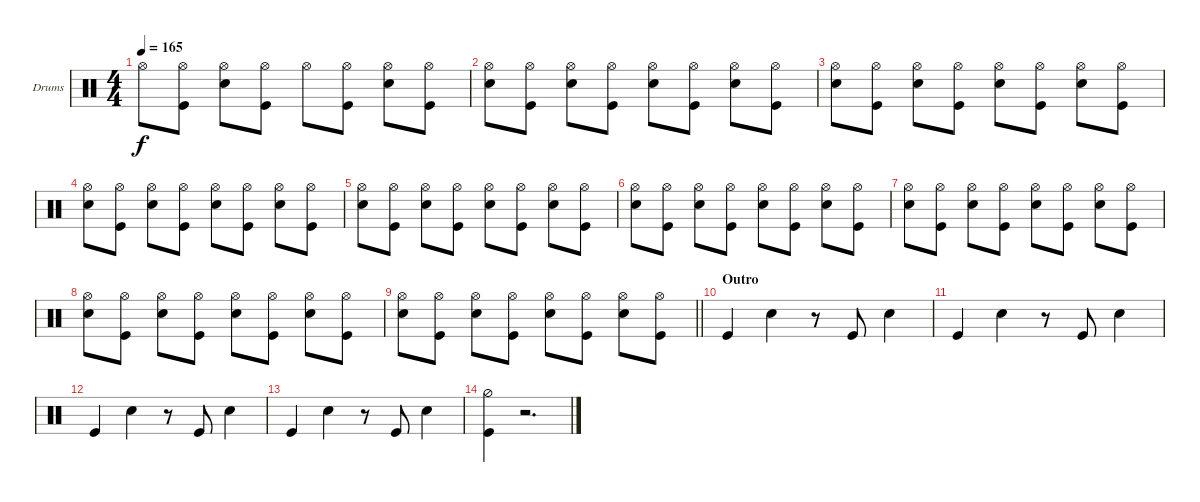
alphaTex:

\bracketExtendMode groupsimilarinstruments
\firstSystemTrackNameOrientation horizontal
\otherSystemsTrackNameOrientation horizontal
\track ("Fabrizio" "Drums") {instrument percussion}
\staff {score}
\articulation defaults
\ts (4 4)
\tempo 165
\clef neutral
\ks c "Hi-Hat (open)".8{dy f}
("Hi-Hat (open)" "Kick (hit)").8 ("Hi-Hat (open)" "Snare (hit) 2").8 ("Hi-Hat (open)" "Kick (hit)").8 "Hi-Hat (open)".8 ("Hi-Hat (open)" "Kick (hit)").8 ("Hi-Hat (open)" "Snare (hit) 2").8 ("Hi-Hat (open)" "Kick (hit)").8 |
("Snare (hit) 2" "Hi-Hat (open)").8 ("Kick (hit)" "Hi-Hat (open)").8 ("Snare (hit) 2" "Hi-Hat (open)").8 ("Kick (hit)" "Hi-Hat (open)").8 ("Hi-Hat (open)" "Snare (hit) 2").8 ("Hi-Hat (open)" "Kick (hit)").8 ("Hi-Hat (open)" "Snare (hit) 2").8 ("Hi-Hat (open)" "Kick (hit)").8 |
("Hi-Hat (open)" "Snare (hit) 2").8 ("Hi-Hat (open)" "Kick (hit)").8 ("Hi-Hat (open)" "Snare (hit) 2").8 ("Hi-Hat (open)" "Kick (hit)").8 ("Hi-Hat (open)" "Snare (hit) 2").8 ("Hi-Hat (open)" "Kick (hit)").8 ("Hi-Hat (open)" "Snare (hit) 2").8 ("Hi-Hat (open)" "Kick (hit)").8 |
("Hi-Hat (open)" "Snare (hit) 2").8 ("Hi-Hat (open)" "Kick (hit)").8 ("Hi-Hat (open)" "Snare (hit) 2").8 ("Hi-Hat (open)" "Kick (hit)").8 ("Hi-Hat (open)" "Snare (hit) 2").8 ("Hi-Hat (open)" "Kick (hit)").8 ("Hi-Hat (open)" "Snare (hit) 2").8 ("Hi-Hat (open)" "Kick (hit)").8 |
("Hi-Hat (open)" "Snare (hit) 2").8 ("Hi-Hat (open)" "Kick (hit)").8 ("Hi-Hat (open)" "Snare (hit) 2").8 ("Hi-Hat (open)" "Kick (hit)").8 ("Hi-Hat (open)" "Snare (hit) 2").8 ("Hi-Hat (open)" "Kick (hit)").8 ("Hi-Hat (open)" "Snare (hit) 2").8 ("Hi-Hat (open)" "Kick (hit)").8 |
("Hi-Hat (open)" "Snare (hit) 2").8 ("Hi-Hat (open)" "Kick (hit)").8 ("Hi-Hat (open)" "Snare (hit) 2").8 ("Hi-Hat (open)" "Kick (hit)").8 ("Hi-Hat (open)" "Snare (hit) 2").8 ("Hi-Hat (open)" "Kick (hit)").8 ("Hi-Hat (open)" "Snare (hit) 2").8 ("Hi-Hat (open)" "Kick (hit)").8 |
("Hi-Hat (open)" "Snare (hit) 2").8 ("Hi-Hat (open)" "Kick (hit)").8 ("Hi-Hat (open)" "Snare (hit) 2").8 ("Hi-Hat (open)" "Kick (hit)").8 ("Hi-Hat (open)" "Snare (hit) 2").8 ("Hi-Hat (open)" "Kick (hit)").8 ("Hi-Hat (open)" "Snare (hit) 2").8 ("Hi-Hat (open)" "Kick (hit)").8 |
("Hi-Hat (open)" "Snare (hit) 2").8 ("Hi-Hat (open)" "Kick (hit)").8 ("Hi-Hat (open)" "Snare (hit) 2").8 ("Hi-Hat (open)" "Kick (hit)").8 ("Hi-Hat (open)" "Snare (hit) 2").8 ("Hi-Hat (open)" "Kick (hit)").8 ("Hi-Hat (open)" "Snare (hit) 2").8 ("Hi-Hat (open)" "Kick (hit)").8 |
\barLineRight lightlight
("Hi-Hat (open)" "Snare (hit) 2").8 ("Hi-Hat (open)" "Kick (hit)").8 ("Hi-Hat (open)" "Snare (hit) 2").8 ("Hi-Hat (open)" "Kick (hit)").8 ("Hi-Hat (open)" "Snare (hit) 2").8 ("Hi-Hat (open)" "Kick (hit)").8 ("Hi-Hat (open)" "Snare (hit) 2").8 ("Hi-Hat (open)" "Kick (hit)").8 |
\section ("" "Outro")
"Kick (hit)".4 "Snare (hit) 2".4 r.8 "Kick (hit)".8 "Snare (hit) 2".4 |
"Kick (hit)".4 "Snare (hit) 2".4 r.8 "Kick (hit)".8 "Snare (hit) 2".4 |
"Kick (hit)".4 "Snare (hit) 2".4 r.8 "Kick (hit)".8 "Snare (hit) 2".4 |
"Kick (hit)".4 "Snare (hit) 2".4 r.8 "Kick (hit)".8 "Snare (hit) 2".4 |
("Kick (hit)" "Hi-Hat (half)").4 r.2{d}
